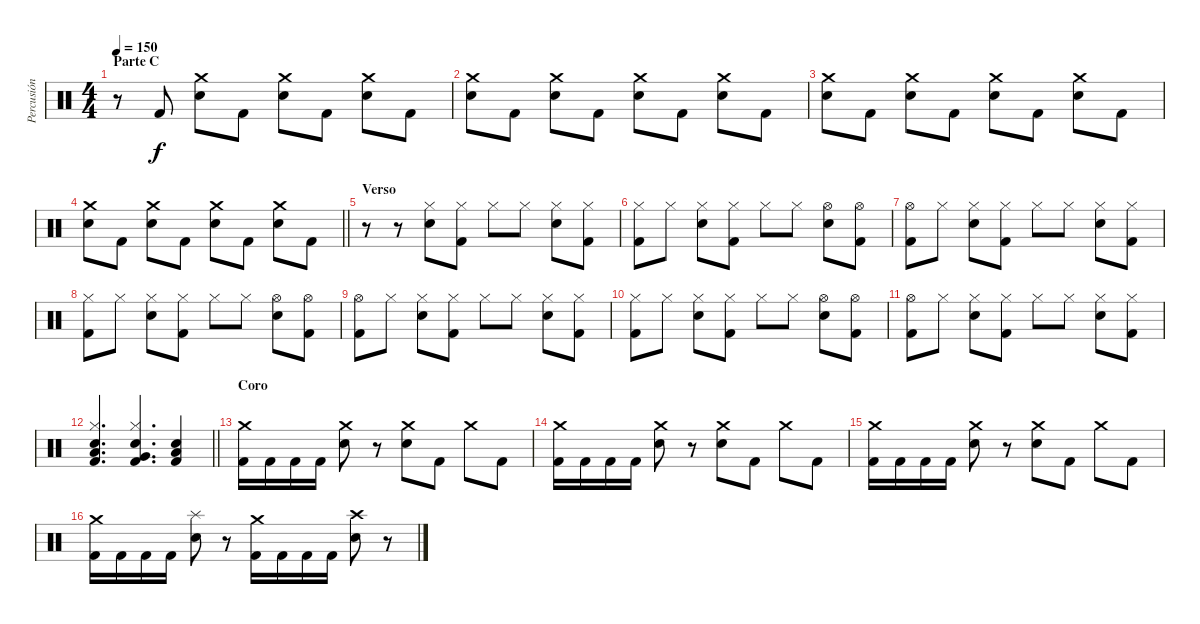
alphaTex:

\track ("Percusión" "Percusión") {instrument percussion}
\staff {score}
\articulation defaults
\ts (4 4)
\section ("" "Parte C")
\tempo 150
\clef neutral
\ks c
r.8{dy f} "Kick (hit) 2".8 ("Crash medium (hit)" "Electric Snare (hit)").8 "Kick (hit) 2".8 ("Crash medium (hit)" "Electric Snare (hit)").8 "Kick (hit) 2".8 ("Crash medium (hit)" "Electric Snare (hit)").8 "Kick (hit) 2".8 |
("Crash medium (hit)" "Electric Snare (hit)").8 "Kick (hit) 2".8 ("Crash medium (hit)" "Electric Snare (hit)").8 "Kick (hit) 2".8 ("Crash medium (hit)" "Electric Snare (hit)").8 "Kick (hit) 2".8 ("Crash medium (hit)" "Electric Snare (hit)").8 "Kick (hit) 2".8 |
("Crash medium (hit)" "Electric Snare (hit)").8 "Kick (hit) 2".8 ("Crash medium (hit)" "Electric Snare (hit)").8 "Kick (hit) 2".8 ("Crash medium (hit)" "Electric Snare (hit)").8 "Kick (hit) 2".8 ("Crash medium (hit)" "Electric Snare (hit)").8 "Kick (hit) 2".8 |
\barLineRight lightlight
("Crash medium (hit)" "Electric Snare (hit)").8 "Kick (hit) 2".8 ("Crash medium (hit)" "Electric Snare (hit)").8 "Kick (hit) 2".8 ("Crash medium (hit)" "Electric Snare (hit)").8 "Kick (hit) 2".8 ("Crash medium (hit)" "Electric Snare (hit)").8 "Kick (hit) 2".8 |
\section ("" "Verso")
r.8 r.8 ("Hi-Hat (closed)" "Electric Snare (hit)").8 ("Hi-Hat (closed)" "Kick (hit) 2").8 "Hi-Hat (closed)".8 "Hi-Hat (closed)".8 ("Hi-Hat (closed)" "Electric Snare (hit)").8 ("Hi-Hat (closed)" "Kick (hit) 2").8 |
("Hi-Hat (closed)" "Kick (hit) 2").8 "Hi-Hat (closed)".8 ("Hi-Hat (closed)" "Electric Snare (hit)").8 ("Hi-Hat (closed)" "Kick (hit) 2").8 "Hi-Hat (closed)".8 "Hi-Hat (closed)".8 ("Hi-Hat (open)" "Electric Snare (hit)").8 ("Hi-Hat (open)" "Kick (hit) 2").8 |
("Hi-Hat (open)" "Kick (hit) 2").8 "Hi-Hat (closed)".8 ("Hi-Hat (closed)" "Electric Snare (hit)").8 ("Hi-Hat (closed)" "Kick (hit) 2").8 "Hi-Hat (closed)".8 "Hi-Hat (closed)".8 ("Hi-Hat (closed)" "Electric Snare (hit)").8 ("Hi-Hat (closed)" "Kick (hit) 2").8 |
("Hi-Hat (closed)" "Kick (hit) 2").8 "Hi-Hat (closed)".8 ("Hi-Hat (closed)" "Electric Snare (hit)").8 ("Hi-Hat (closed)" "Kick (hit) 2").8 "Hi-Hat (closed)".8 "Hi-Hat (closed)".8 ("Hi-Hat (open)" "Electric Snare (hit)").8 ("Hi-Hat (open)" "Kick (hit) 2").8 |
("Hi-Hat (open)" "Kick (hit) 2").8 "Hi-Hat (closed)".8 ("Hi-Hat (closed)" "Electric Snare (hit)").8 ("Hi-Hat (closed)" "Kick (hit) 2").8 "Hi-Hat (closed)".8 "Hi-Hat (closed)".8 ("Hi-Hat (closed)" "Electric Snare (hit)").8 ("Hi-Hat (closed)" "Kick (hit) 2").8 |
("Hi-Hat (closed)" "Kick (hit) 2").8 "Hi-Hat (closed)".8 ("Hi-Hat (closed)" "Electric Snare (hit)").8 ("Hi-Hat (closed)" "Kick (hit) 2").8 "Hi-Hat (closed)".8 "Hi-Hat (closed)".8 ("Hi-Hat (open)" "Electric Snare (hit)").8 ("Hi-Hat (open)" "Kick (hit) 2").8 |
("Hi-Hat (open)" "Kick (hit) 2").8 "Hi-Hat (closed)".8 ("Hi-Hat (closed)" "Electric Snare (hit)").8 ("Hi-Hat (closed)" "Kick (hit) 2").8 "Hi-Hat (closed)".8 "Hi-Hat (closed)".8 ("Hi-Hat (closed)" "Electric Snare (hit)").8 ("Hi-Hat (closed)" "Kick (hit) 2").8 |
\barLineRight lightlight
("Hi-Hat (closed)" "Low Tom (hit)" "Electric Snare (hit)" "Kick (hit) 2").4{d} ("Hi-Hat (closed)" "Very Low Tom (hit)" "Electric Snare (hit)" "Kick (hit) 2").4{d} ("Low Floor Tom (hit)" "Electric Snare (hit)" "Kick (hit) 2").4 |
\section ("" "Coro")
("Crash medium (hit)" "Kick (hit) 2").16 "Kick (hit) 2".16 "Kick (hit) 2".16 "Kick (hit) 2".16 ("Crash medium (hit)" "Electric Snare (hit)").8 r.8 ("Crash medium (hit)" "Electric Snare (hit)").8 "Kick (hit) 2".8 "Crash medium (hit)".8 "Kick (hit) 2".8 |
("Crash medium (hit)" "Kick (hit) 2").16 "Kick (hit) 2".16 "Kick (hit) 2".16 "Kick (hit) 2".16 ("Crash medium (hit)" "Electric Snare (hit)").8 r.8 ("Crash medium (hit)" "Electric Snare (hit)").8 "Kick (hit) 2".8 "Crash medium (hit)".8 "Kick (hit) 2".8 |
("Crash medium (hit)" "Kick (hit) 2").16 "Kick (hit) 2".16 "Kick (hit) 2".16 "Kick (hit) 2".16 ("Crash medium (hit)" "Electric Snare (hit)").8 r.8 ("Crash medium (hit)" "Electric Snare (hit)").8 "Kick (hit) 2".8 "Crash medium (hit)".8 "Kick (hit) 2".8 |
("Crash medium (hit)" "Kick (hit) 2").16 "Kick (hit) 2".16 "Kick (hit) 2".16 "Kick (hit) 2".16 ("Splash (hit)" "Electric Snare (hit)").8 r.8 ("Crash medium (hit)" "Kick (hit) 2").16 "Kick (hit) 2".16 "Kick (hit) 2".16 "Kick (hit) 2".16 ("Crash high (hit)" "Electric Snare (hit)").8 r.8
